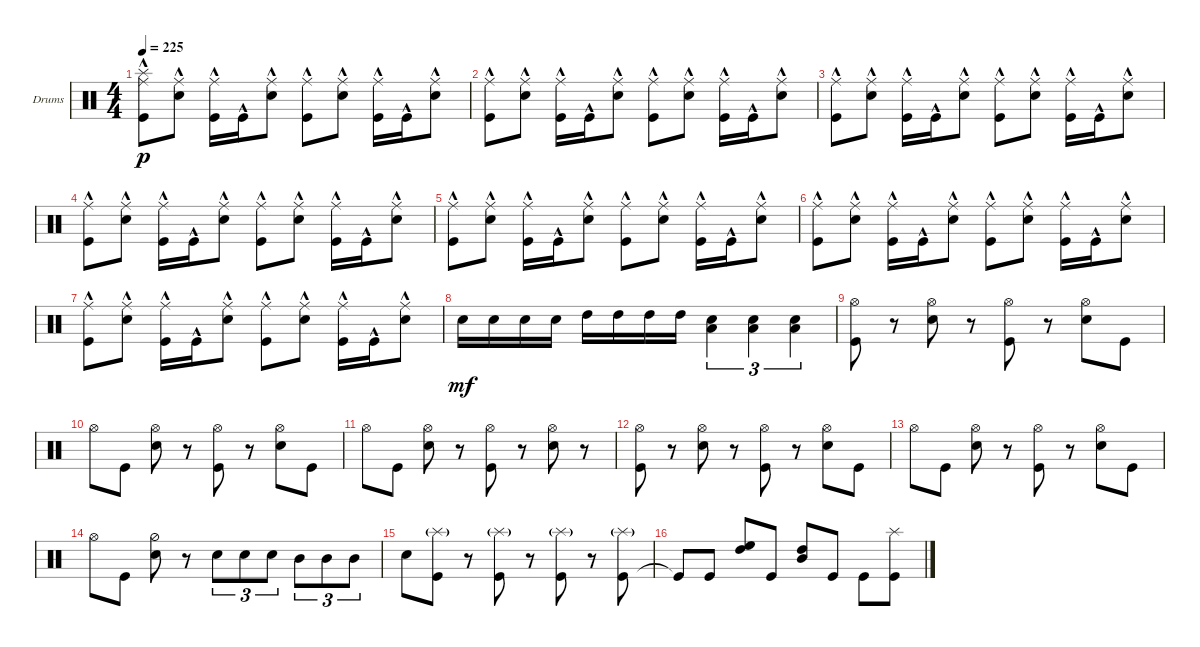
\bracketExtendMode groupsimilarinstruments
\firstSystemTrackNameOrientation horizontal
\otherSystemsTrackNameOrientation horizontal
\track ("Drumkit" "Drums") {instrument percussion}
\staff {score}
\articulation defaults
\ts (4 4)
\tempo 225
\clef neutral
\ks c
("Kick (hit)"{hac} "Splash (hit)" "Ride (middle)").8{dy p} ("Snare (hit) 2"{hac} "Ride (middle)").8 ("Kick (hit)"{hac} "Ride (middle)").16 "Kick (hit)"{hac}.16 ("Snare (hit) 2"{hac} "Ride (middle)").8 ("Kick (hit)"{hac} "Ride (middle)").8 ("Snare (hit) 2"{hac} "Ride (middle)").8 ("Kick (hit)"{hac} "Ride (middle)").16 "Kick (hit)"{hac}.16 ("Snare (hit) 2"{hac} "Ride (middle)").8 |
("Kick (hit)"{hac} "Ride (middle)").8 ("Snare (hit) 2"{hac} "Ride (middle)").8 ("Kick (hit)"{hac} "Ride (middle)").16 "Kick (hit)"{hac}.16 ("Snare (hit) 2"{hac} "Ride (middle)").8 ("Kick (hit)"{hac} "Ride (middle)").8 ("Snare (hit) 2"{hac} "Ride (middle)").8 ("Kick (hit)"{hac} "Ride (middle)").16 "Kick (hit)"{hac}.16 ("Snare (hit) 2"{hac} "Ride (middle)").8 |
("Kick (hit)"{hac} "Ride (middle)").8 ("Snare (hit) 2"{hac} "Ride (middle)").8 ("Kick (hit)"{hac} "Ride (middle)").16 "Kick (hit)"{hac}.16 ("Snare (hit) 2"{hac} "Ride (middle)").8 ("Kick (hit)"{hac} "Ride (middle)").8 ("Snare (hit) 2"{hac} "Ride (middle)").8 ("Kick (hit)"{hac} "Ride (middle)").16 "Kick (hit)"{hac}.16 ("Snare (hit) 2"{hac} "Ride (middle)").8 |
("Kick (hit)"{hac} "Ride (middle)").8 ("Snare (hit) 2"{hac} "Ride (middle)").8 ("Kick (hit)"{hac} "Ride (middle)").16 "Kick (hit)"{hac}.16 ("Snare (hit) 2"{hac} "Ride (middle)").8 ("Kick (hit)"{hac} "Ride (middle)").8 ("Snare (hit) 2"{hac} "Ride (middle)").8 ("Kick (hit)"{hac} "Ride (middle)").16 "Kick (hit)"{hac}.16 ("Snare (hit) 2"{hac} "Ride (middle)").8 |
("Kick (hit)"{hac} "Ride (middle)").8 ("Snare (hit) 2"{hac} "Ride (middle)").8 ("Kick (hit)"{hac} "Ride (middle)").16 "Kick (hit)"{hac}.16 ("Snare (hit) 2"{hac} "Ride (middle)").8 ("Kick (hit)"{hac} "Ride (middle)").8 ("Snare (hit) 2"{hac} "Ride (middle)").8 ("Kick (hit)"{hac} "Ride (middle)").16 "Kick (hit)"{hac}.16 ("Snare (hit) 2"{hac} "Ride (middle)").8 |
("Kick (hit)"{hac} "Ride (middle)").8 ("Snare (hit) 2"{hac} "Ride (middle)").8 ("Kick (hit)"{hac} "Ride (middle)").16 "Kick (hit)"{hac}.16 ("Snare (hit) 2"{hac} "Ride (middle)").8 ("Kick (hit)"{hac} "Ride (middle)").8 ("Snare (hit) 2"{hac} "Ride (middle)").8 ("Kick (hit)"{hac} "Ride (middle)").16 "Kick (hit)"{hac}.16 ("Snare (hit) 2"{hac} "Ride (middle)").8 |
("Kick (hit)"{hac} "Ride (middle)").8 ("Snare (hit) 2"{hac} "Ride (middle)").8 ("Kick (hit)"{hac} "Ride (middle)").16 "Kick (hit)"{hac}.16 ("Snare (hit) 2"{hac} "Ride (middle)").8 ("Kick (hit)"{hac} "Ride (middle)").8 ("Snare (hit) 2"{hac} "Ride (middle)").8 ("Kick (hit)"{hac} "Ride (middle)").16 "Kick (hit)"{hac}.16 ("Snare (hit) 2"{hac} "Ride (middle)").8 |
"Snare (hit) 2".16{dy mf} "Snare (hit) 2".16 "Snare (hit) 2".16 "Snare (hit) 2".16 "High Tom (hit)".16 "High Tom (hit)".16 "High Tom (hit)".16 "High Tom (hit)".16 ("Snare (hit) 2" "Low Tom (hit)").4{tu (3 2)} ("Snare (hit) 2" "Low Tom (hit)").4{tu (3 2)} ("Snare (hit) 2" "Low Tom (hit)").4{tu (3 2)} |
("Kick (hit)" "Hi-Hat (open)").8 r.8 ("Snare (hit) 2" "Hi-Hat (open)").8 r.8 ("Kick (hit)" "Hi-Hat (open)").8 r.8 ("Snare (hit) 2" "Hi-Hat (open)").8 "Kick (hit)".8 |
"Hi-Hat (open)".8 "Kick (hit)".8 ("Snare (hit) 2" "Hi-Hat (open)").8 r.8 ("Kick (hit)" "Hi-Hat (open)").8 r.8 ("Snare (hit) 2" "Hi-Hat (open)").8 "Kick (hit)".8 |
"Hi-Hat (open)".8 "Kick (hit)".8 ("Snare (hit) 2" "Hi-Hat (open)").8 r.8 ("Kick (hit)" "Hi-Hat (open)").8 r.8 ("Snare (hit) 2" "Hi-Hat (open)").8 r.8 |
("Kick (hit)" "Hi-Hat (open)").8 r.8 ("Snare (hit) 2" "Hi-Hat (open)").8 r.8 ("Kick (hit)" "Hi-Hat (open)").8 r.8 ("Snare (hit) 2" "Hi-Hat (open)").8 "Kick (hit)".8 |
"Hi-Hat (open)".8 "Kick (hit)".8 ("Snare (hit) 2" "Hi-Hat (open)").8 r.8 ("Hi-Hat (open)" "Kick (hit)").8 r.8 ("Snare (hit) 2" "Hi-Hat (open)").8 "Kick (hit)".8 |
"Hi-Hat (open)".8 "Kick (hit)".8 ("Snare (hit) 2" "Hi-Hat (half)").8 r.8 "Snare (hit) 2".8{tu (3 2)} "Snare (hit) 2".8{tu (3 2)} "Snare (hit) 2".8{tu (3 2)} "Mid Tom (hit)".8{tu (3 2)} "Mid Tom (hit)".8{tu (3 2)} "Mid Tom (hit)".8{tu (3 2)} |
"Snare (hit) 2".8 ("Kick (hit)" "Splash (hit)"{g}).8 r.8 ("Kick (hit)" "Splash (hit)"{g}).8 r.8 ("Kick (hit)" "Splash (hit)"{g}).8 r.8 ("Kick (hit)" "Splash (hit)"{g}).8 |
"Kick (hit)"{t}.8 "Kick (hit)".8 ("High Tom (hit)" "High Floor Tom (hit)").8 "Kick (hit)".8 ("High Tom (hit)" "Mid Tom (hit)").8 "Kick (hit)".8 "Kick (hit)".8 ("Kick (hit)" "Splash (hit)").8
